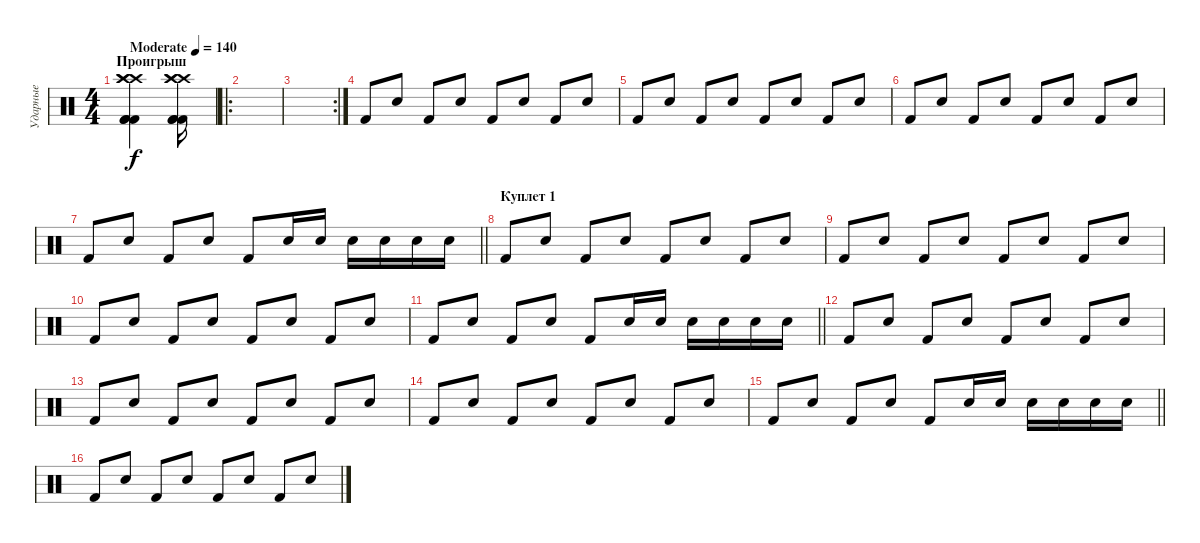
\track ("Ударные" "Ударные") {instrument percussion}
\staff {score}
\articulation defaults
\ts (4 4)
\section ("" "Проигрыш")
\tempo (140 "Moderate")
\clef neutral
\ks c
("Kick (hit) 2" "Crash high (hit)" "Kick (hit) 2" "Crash high (hit)" "Kick (hit) 2" "Crash high (hit)").4{dy f} ("Kick (hit) 2" "Crash high (hit)" "Kick (hit) 2" "Crash high (hit)" "Kick (hit) 2" "Crash high (hit)").16 |
\ro
|
\rc 2
|
"Kick (hit) 2".8 "Electric Snare (hit)".8 "Kick (hit) 2".8 "Electric Snare (hit)".8 "Kick (hit) 2".8 "Electric Snare (hit)".8 "Kick (hit) 2".8 "Electric Snare (hit)".8 |
"Kick (hit) 2".8 "Electric Snare (hit)".8 "Kick (hit) 2".8 "Electric Snare (hit)".8 "Kick (hit) 2".8 "Electric Snare (hit)".8 "Kick (hit) 2".8 "Electric Snare (hit)".8 |
"Kick (hit) 2".8 "Electric Snare (hit)".8 "Kick (hit) 2".8 "Electric Snare (hit)".8 "Kick (hit) 2".8 "Electric Snare (hit)".8 "Kick (hit) 2".8 "Electric Snare (hit)".8 |
\barLineRight lightlight "Kick (hit) 2".8 "Electric Snare (hit)".8 "Kick (hit) 2".8 "Electric Snare (hit)".8 "Kick (hit) 2".8 "Electric Snare (hit)".16 "Electric Snare (hit)".16 "Electric Snare (hit)".16 "Electric Snare (hit)".16 "Electric Snare (hit)".16 "Electric Snare (hit)".16
|
\section ("" "Куплет 1")
"Kick (hit) 2".8 "Electric Snare (hit)".8 "Kick (hit) 2".8 "Electric Snare (hit)".8 "Kick (hit) 2".8 "Electric Snare (hit)".8 "Kick (hit) 2".8 "Electric Snare (hit)".8 |
"Kick (hit) 2".8 "Electric Snare (hit)".8 "Kick (hit) 2".8 "Electric Snare (hit)".8 "Kick (hit) 2".8 "Electric Snare (hit)".8 "Kick (hit) 2".8 "Electric Snare (hit)".8 |
"Kick (hit) 2".8 "Electric Snare (hit)".8 "Kick (hit) 2".8 "Electric Snare (hit)".8 "Kick (hit) 2".8 "Electric Snare (hit)".8 "Kick (hit) 2".8 "Electric Snare (hit)".8 |
\barLineRight lightlight "Kick (hit) 2".8 "Electric Snare (hit)".8 "Kick (hit) 2".8 "Electric Snare (hit)".8 "Kick (hit) 2".8 "Electric Snare (hit)".16 "Electric Snare (hit)".16 "Electric Snare (hit)".16 "Electric Snare (hit)".16 "Electric Snare (hit)".16 "Electric Snare (hit)".16
|
"Kick (hit) 2".8 "Electric Snare (hit)".8 "Kick (hit) 2".8 "Electric Snare (hit)".8 "Kick (hit) 2".8 "Electric Snare (hit)".8 "Kick (hit) 2".8 "Electric Snare (hit)".8 |
"Kick (hit) 2".8 "Electric Snare (hit)".8 "Kick (hit) 2".8 "Electric Snare (hit)".8 "Kick (hit) 2".8 "Electric Snare (hit)".8 "Kick (hit) 2".8 "Electric Snare (hit)".8 |
"Kick (hit) 2".8 "Electric Snare (hit)".8 "Kick (hit) 2".8 "Electric Snare (hit)".8 "Kick (hit) 2".8 "Electric Snare (hit)".8 "Kick (hit) 2".8 "Electric Snare (hit)".8 |
\barLineRight lightlight "Kick (hit) 2".8 "Electric Snare (hit)".8 "Kick (hit) 2".8 "Electric Snare (hit)".8 "Kick (hit) 2".8 "Electric Snare (hit)".16 "Electric Snare (hit)".16 "Electric Snare (hit)".16 "Electric Snare (hit)".16 "Electric Snare (hit)".16 "Electric Snare (hit)".16
|
"Kick (hit) 2".8 "Electric Snare (hit)".8 "Kick (hit) 2".8 "Electric Snare (hit)".8 "Kick (hit) 2".8 "Electric Snare (hit)".8 "Kick (hit) 2".8 "Electric Snare (hit)".8
